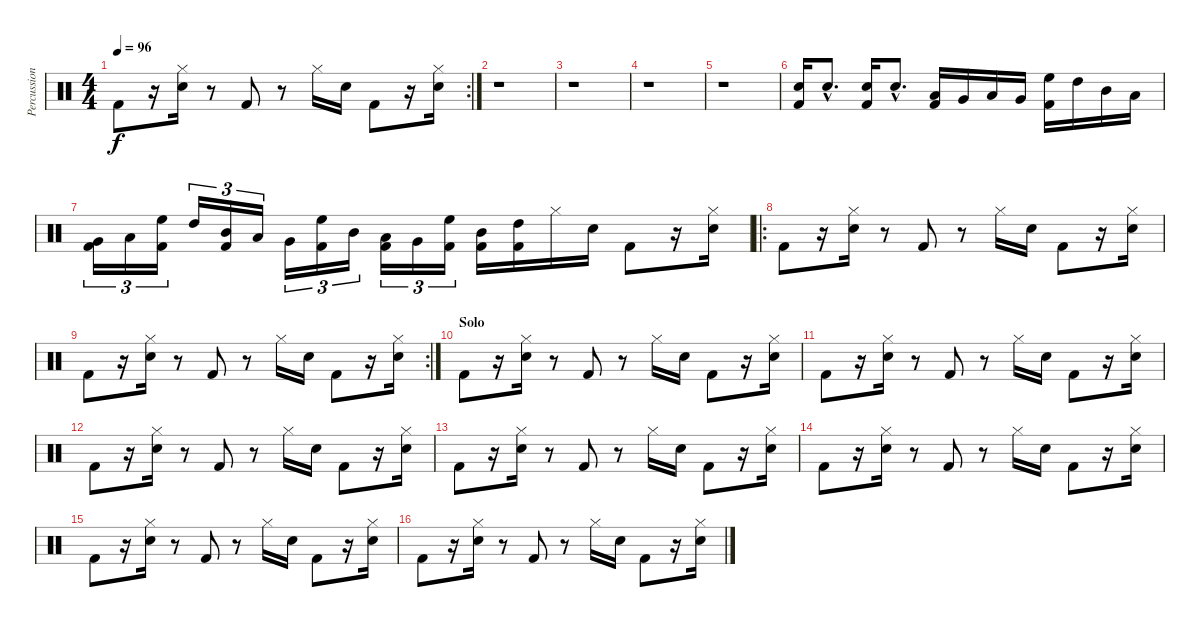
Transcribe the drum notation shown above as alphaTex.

\track ("Percussion" "Percussion") {instrument percussion}
\staff {score}
\articulation defaults
\rc 2
\ts (4 4)
\tempo 96
\clef neutral
\ks c "Kick (hit) 2".8{dy f}
r.16 ("Hi-Hat (closed)" "Snare (hit) 2").16 r.8 "Kick (hit) 2".8 r.8 "Hi-Hat (closed)".16 "Snare (hit) 2".16 "Kick (hit) 2".8 r.16 ("Hi-Hat (closed)" "Snare (hit) 2").16 |
r.1 |
r.1 |
r.1 |
r.1 |
("Snare (hit) 2" "Kick (hit) 2").16 "Snare (hit) 2"{hac}.8{d} ("Snare (hit) 2" "Kick (hit) 2").16 "Snare (hit) 2"{hac}.8{d} ("Low Floor Tom (hit)" "Kick (hit) 2").16 "Very Low Tom (hit)".16 "Low Tom (hit)".16 "Very Low Tom (hit)".16 ("High Floor Tom (hit)" "Kick (hit) 2").16 "High Tom (hit)".16 "Mid Tom (hit)".16 "Low Floor Tom (hit)".16 |
("Very Low Tom (hit)" "Kick (hit) 2").16{tu (3 2)} "Low Floor Tom (hit)".16{tu (3 2)} ("High Floor Tom (hit)" "Kick (hit) 2").16{tu (3 2)} "High Tom (hit)".16{tu (3 2)} ("Mid Tom (hit)" "Kick (hit) 2").16{tu (3 2)} "Low Tom (hit)".16{tu (3 2)} "Very Low Tom (hit)".16{tu (3 2)} ("High Floor Tom (hit)" "Kick (hit) 2").16{tu (3 2)} "Mid Tom (hit)".16{tu (3 2)} ("Low Floor Tom (hit)" "Kick (hit) 2").16{tu (3 2)} "Very Low Tom (hit)".16{tu (3 2)} ("High Floor Tom (hit)" "Kick (hit) 2").16{tu (3 2)} ("Mid Tom (hit)" "Kick (hit) 2").16 ("High Tom (hit)" "Kick (hit) 2").16 "Hi-Hat (closed)".16 "Snare (hit) 2".16 "Kick (hit) 2".8 r.16 ("Hi-Hat (closed)" "Snare (hit) 2").16 |
\ro "Kick (hit) 2".8
r.16 ("Hi-Hat (closed)" "Snare (hit) 2").16 r.8 "Kick (hit) 2".8 r.8 "Hi-Hat (closed)".16 "Snare (hit) 2".16 "Kick (hit) 2".8 r.16 ("Hi-Hat (closed)" "Snare (hit) 2").16 |
\rc 2 "Kick (hit) 2".8
r.16 ("Hi-Hat (closed)" "Snare (hit) 2").16 r.8 "Kick (hit) 2".8 r.8 "Hi-Hat (closed)".16 "Snare (hit) 2".16 "Kick (hit) 2".8 r.16 ("Hi-Hat (closed)" "Snare (hit) 2").16 |
\section ("" "Solo")
"Kick (hit) 2".8 r.16 ("Hi-Hat (closed)" "Snare (hit) 2").16 r.8 "Kick (hit) 2".8 r.8 "Hi-Hat (closed)".16 "Snare (hit) 2".16 "Kick (hit) 2".8 r.16 ("Hi-Hat (closed)" "Snare (hit) 2").16 |
"Kick (hit) 2".8 r.16 ("Hi-Hat (closed)" "Snare (hit) 2").16 r.8 "Kick (hit) 2".8 r.8 "Hi-Hat (closed)".16 "Snare (hit) 2".16 "Kick (hit) 2".8 r.16 ("Hi-Hat (closed)" "Snare (hit) 2").16 |
"Kick (hit) 2".8 r.16 ("Hi-Hat (closed)" "Snare (hit) 2").16 r.8 "Kick (hit) 2".8 r.8 "Hi-Hat (closed)".16 "Snare (hit) 2".16 "Kick (hit) 2".8 r.16 ("Hi-Hat (closed)" "Snare (hit) 2").16 |
"Kick (hit) 2".8 r.16 ("Hi-Hat (closed)" "Snare (hit) 2").16 r.8 "Kick (hit) 2".8 r.8 "Hi-Hat (closed)".16 "Snare (hit) 2".16 "Kick (hit) 2".8 r.16 ("Hi-Hat (closed)" "Snare (hit) 2").16 |
"Kick (hit) 2".8 r.16 ("Hi-Hat (closed)" "Snare (hit) 2").16 r.8 "Kick (hit) 2".8 r.8 "Hi-Hat (closed)".16 "Snare (hit) 2".16 "Kick (hit) 2".8 r.16 ("Hi-Hat (closed)" "Snare (hit) 2").16 |
"Kick (hit) 2".8 r.16 ("Hi-Hat (closed)" "Snare (hit) 2").16 r.8 "Kick (hit) 2".8 r.8 "Hi-Hat (closed)".16 "Snare (hit) 2".16 "Kick (hit) 2".8 r.16 ("Hi-Hat (closed)" "Snare (hit) 2").16 |
"Kick (hit) 2".8 r.16 ("Hi-Hat (closed)" "Snare (hit) 2").16 r.8 "Kick (hit) 2".8 r.8 "Hi-Hat (closed)".16 "Snare (hit) 2".16 "Kick (hit) 2".8 r.16 ("Hi-Hat (closed)" "Snare (hit) 2").16
